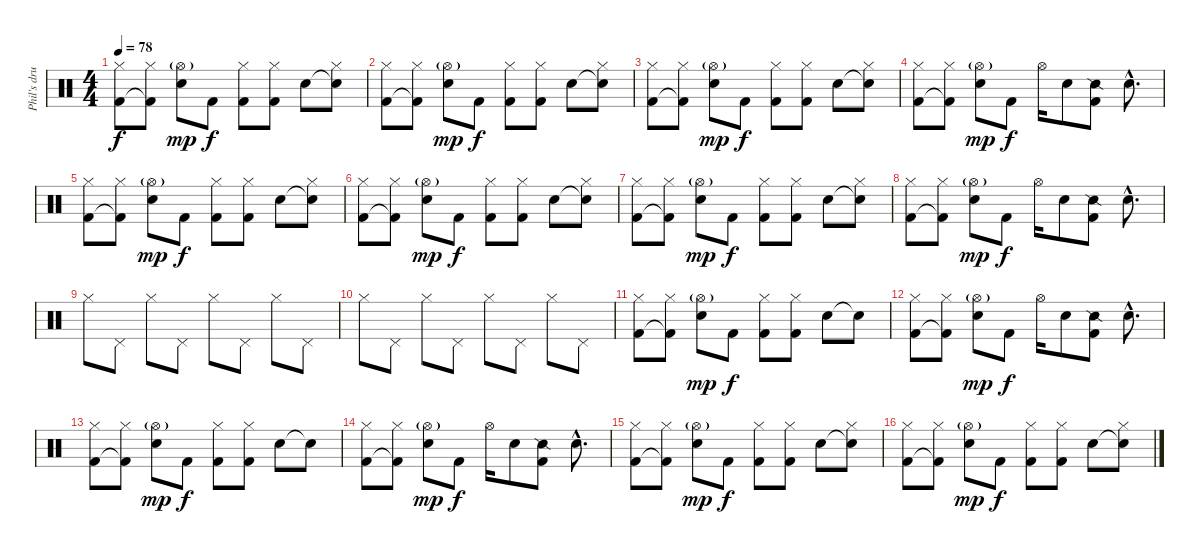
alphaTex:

\track ("Phil's drums" "Phil's dru") {instrument percussion}
\staff {score}
\articulation defaults
\ts (4 4)
\tempo 78
\clef neutral
\ks c
("Kick (hit) 2" "Hi-Hat (closed)").8{dy f} ("Kick (hit) 2"{t} "Hi-Hat (closed)").8 ("Snare (hit) 2" "Hi-Hat (open)"{g}).8{dy mp} "Kick (hit) 2".8{dy f} ("Kick (hit) 2" "Hi-Hat (closed)").8 ("Kick (hit) 2" "Hi-Hat (closed)").8 "Snare (hit) 2".8 ("Snare (hit) 2"{t} "Hi-Hat (closed)").8 |
("Kick (hit) 2" "Hi-Hat (closed)").8 ("Kick (hit) 2"{t} "Hi-Hat (closed)").8 ("Snare (hit) 2" "Hi-Hat (open)"{g}).8{dy mp} "Kick (hit) 2".8{dy f} ("Kick (hit) 2" "Hi-Hat (closed)").8 ("Kick (hit) 2" "Hi-Hat (closed)").8 "Snare (hit) 2".8 ("Snare (hit) 2"{t} "Hi-Hat (closed)").8 |
("Kick (hit) 2" "Hi-Hat (closed)").8 ("Kick (hit) 2"{t} "Hi-Hat (closed)").8 ("Snare (hit) 2" "Hi-Hat (open)"{g}).8{dy mp} "Kick (hit) 2".8{dy f} ("Kick (hit) 2" "Hi-Hat (closed)").8 ("Kick (hit) 2" "Hi-Hat (closed)").8 "Snare (hit) 2".8 ("Snare (hit) 2"{t} "Hi-Hat (closed)").8 |
("Kick (hit) 2" "Hi-Hat (closed)").8 ("Kick (hit) 2"{t} "Hi-Hat (closed)").8 ("Snare (hit) 2" "Hi-Hat (open)"{g}).8{dy mp} "Kick (hit) 2".8{dy f} "Hi-Hat (open)".16 "Snare (hit) 2".8 ("Snare (side stick) 2" "Kick (hit) 2").8 "Snare (hit) 2"{hac}.8{d} |
("Kick (hit) 2" "Hi-Hat (closed)").8 ("Kick (hit) 2"{t} "Hi-Hat (closed)").8 ("Snare (hit) 2" "Hi-Hat (open)"{g}).8{dy mp} "Kick (hit) 2".8{dy f} ("Kick (hit) 2" "Hi-Hat (closed)").8 ("Kick (hit) 2" "Hi-Hat (closed)").8 "Snare (hit) 2".8 ("Snare (hit) 2"{t} "Hi-Hat (closed)").8 |
("Kick (hit) 2" "Hi-Hat (closed)").8 ("Kick (hit) 2"{t} "Hi-Hat (closed)").8 ("Snare (hit) 2" "Hi-Hat (open)"{g}).8{dy mp} "Kick (hit) 2".8{dy f} ("Kick (hit) 2" "Hi-Hat (closed)").8 ("Kick (hit) 2" "Hi-Hat (closed)").8 "Snare (hit) 2".8 ("Snare (hit) 2"{t} "Hi-Hat (closed)").8 |
("Kick (hit) 2" "Hi-Hat (closed)").8 ("Kick (hit) 2"{t} "Hi-Hat (closed)").8 ("Snare (hit) 2" "Hi-Hat (open)"{g}).8{dy mp} "Kick (hit) 2".8{dy f} ("Kick (hit) 2" "Hi-Hat (closed)").8 ("Kick (hit) 2" "Hi-Hat (closed)").8 "Snare (hit) 2".8 ("Snare (hit) 2"{t} "Hi-Hat (closed)").8 |
("Kick (hit) 2" "Hi-Hat (closed)").8 ("Kick (hit) 2"{t} "Hi-Hat (closed)").8 ("Snare (hit) 2" "Hi-Hat (open)"{g}).8{dy mp} "Kick (hit) 2".8{dy f} "Hi-Hat (open)".16 "Snare (hit) 2".8 ("Snare (side stick) 2" "Kick (hit) 2").8 "Snare (hit) 2"{hac}.8{d} |
"Hi-Hat (closed)".8 "Pedal Hi-Hat (hit)".8 "Hi-Hat (closed)".8 "Pedal Hi-Hat (hit)".8 "Hi-Hat (closed)".8 "Pedal Hi-Hat (hit)".8 "Hi-Hat (closed)".8 "Pedal Hi-Hat (hit)".8 |
"Hi-Hat (closed)".8 "Pedal Hi-Hat (hit)".8 "Hi-Hat (closed)".8 "Pedal Hi-Hat (hit)".8 "Hi-Hat (closed)".8 "Pedal Hi-Hat (hit)".8 "Hi-Hat (closed)".8 "Pedal Hi-Hat (hit)".8 |
("Kick (hit) 2" "Hi-Hat (closed)").8 ("Kick (hit) 2"{t} "Hi-Hat (closed)").8 ("Snare (hit) 2" "Hi-Hat (open)"{g}).8{dy mp} "Kick (hit) 2".8{dy f} ("Kick (hit) 2" "Hi-Hat (closed)").8 ("Kick (hit) 2" "Hi-Hat (closed)").8 "Snare (hit) 2".8 "Snare (hit) 2"{t}.8 |
("Kick (hit) 2" "Hi-Hat (closed)").8 ("Kick (hit) 2"{t} "Hi-Hat (closed)").8 ("Snare (hit) 2" "Hi-Hat (open)"{g}).8{dy mp} "Kick (hit) 2".8{dy f} "Hi-Hat (open)".16 "Snare (hit) 2".8 ("Snare (side stick) 2" "Kick (hit) 2").8 "Snare (hit) 2"{hac}.8{d} |
("Kick (hit) 2" "Hi-Hat (closed)").8 ("Kick (hit) 2"{t} "Hi-Hat (closed)").8 ("Snare (hit) 2" "Hi-Hat (open)"{g}).8{dy mp} "Kick (hit) 2".8{dy f} ("Kick (hit) 2" "Hi-Hat (closed)").8 ("Kick (hit) 2" "Hi-Hat (closed)").8 "Snare (hit) 2".8 "Snare (hit) 2"{t}.8 |
("Kick (hit) 2" "Hi-Hat (closed)").8 ("Kick (hit) 2"{t} "Hi-Hat (closed)").8 ("Snare (hit) 2" "Hi-Hat (open)"{g}).8{dy mp} "Kick (hit) 2".8{dy f} "Hi-Hat (open)".16 "Snare (hit) 2".8 ("Snare (side stick) 2" "Kick (hit) 2").8 "Snare (hit) 2"{hac}.8{d} |
("Kick (hit) 2" "Hi-Hat (closed)").8 ("Kick (hit) 2"{t} "Hi-Hat (closed)").8 ("Snare (hit) 2" "Hi-Hat (open)"{g}).8{dy mp} "Kick (hit) 2".8{dy f} ("Kick (hit) 2" "Hi-Hat (closed)").8 ("Kick (hit) 2" "Hi-Hat (closed)").8 "Snare (hit) 2".8 ("Snare (hit) 2"{t} "Hi-Hat (closed)").8 |
("Kick (hit) 2" "Hi-Hat (closed)").8 ("Kick (hit) 2"{t} "Hi-Hat (closed)").8 ("Snare (hit) 2" "Hi-Hat (open)"{g}).8{dy mp} "Kick (hit) 2".8{dy f} ("Kick (hit) 2" "Hi-Hat (closed)").8 ("Kick (hit) 2" "Hi-Hat (closed)").8 "Snare (hit) 2".8 ("Snare (hit) 2"{t} "Hi-Hat (closed)").8
